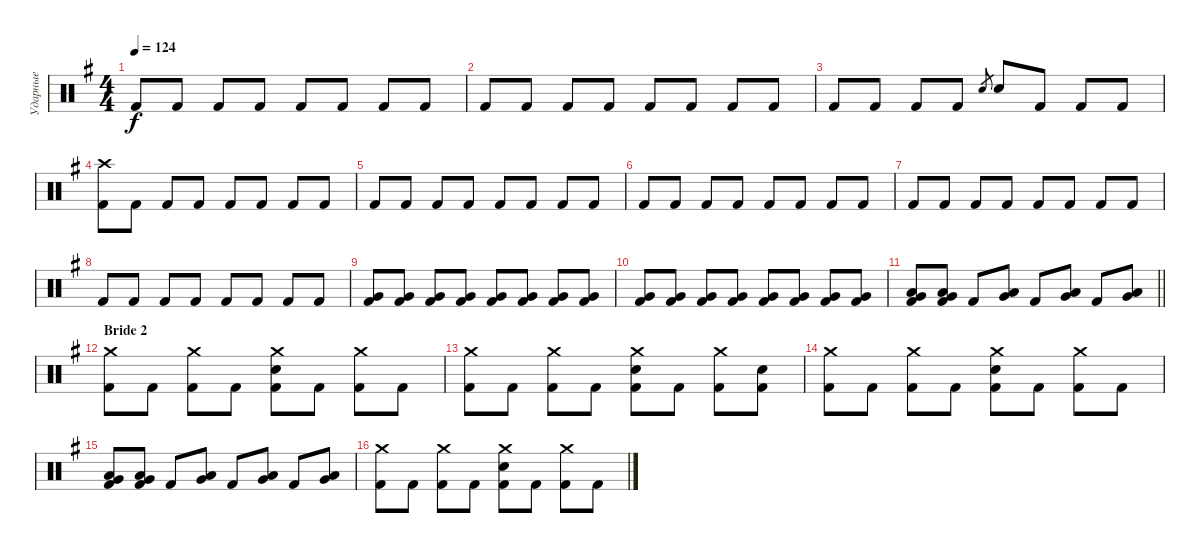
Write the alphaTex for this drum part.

\track ("Ударные" "Ударные") {instrument percussion}
\staff {score}
\articulation defaults
\ts (4 4)
\tempo 124
\clef neutral
\ks g "Kick (hit) 2".8{dy f} "Kick (hit) 2".8 "Kick (hit) 2".8 "Kick (hit) 2".8 "Kick (hit) 2".8 "Kick (hit) 2".8 "Kick (hit) 2".8 "Kick (hit) 2".8
|
"Kick (hit) 2".8 "Kick (hit) 2".8 "Kick (hit) 2".8 "Kick (hit) 2".8 "Kick (hit) 2".8 "Kick (hit) 2".8 "Kick (hit) 2".8 "Kick (hit) 2".8 |
"Kick (hit) 2".8 "Kick (hit) 2".8 "Kick (hit) 2".8 "Kick (hit) 2".8 "Electric Snare (hit)".8{gr} "Electric Snare (hit)".8 "Kick (hit) 2".8 "Kick (hit) 2".8 "Kick (hit) 2".8 |
("Crash high (hit)" "Kick (hit) 2").8 "Kick (hit) 2".8 "Kick (hit) 2".8 "Kick (hit) 2".8 "Kick (hit) 2".8 "Kick (hit) 2".8 "Kick (hit) 2".8 "Kick (hit) 2".8 |
"Kick (hit) 2".8 "Kick (hit) 2".8 "Kick (hit) 2".8 "Kick (hit) 2".8 "Kick (hit) 2".8 "Kick (hit) 2".8 "Kick (hit) 2".8 "Kick (hit) 2".8 |
"Kick (hit) 2".8 "Kick (hit) 2".8 "Kick (hit) 2".8 "Kick (hit) 2".8 "Kick (hit) 2".8 "Kick (hit) 2".8 "Kick (hit) 2".8 "Kick (hit) 2".8 |
"Kick (hit) 2".8 "Kick (hit) 2".8 "Kick (hit) 2".8 "Kick (hit) 2".8 "Kick (hit) 2".8 "Kick (hit) 2".8 "Kick (hit) 2".8 "Kick (hit) 2".8 |
"Kick (hit) 2".8 "Kick (hit) 2".8 "Kick (hit) 2".8 "Kick (hit) 2".8 "Kick (hit) 2".8 "Kick (hit) 2".8 "Kick (hit) 2".8 "Kick (hit) 2".8 |
("Very Low Tom (hit)" "Kick (hit) 2").8 ("Very Low Tom (hit)" "Kick (hit) 2").8 ("Very Low Tom (hit)" "Kick (hit) 2").8 ("Very Low Tom (hit)" "Kick (hit) 2").8 ("Very Low Tom (hit)" "Kick (hit) 2").8 ("Very Low Tom (hit)" "Kick (hit) 2").8 ("Very Low Tom (hit)" "Kick (hit) 2").8 ("Very Low Tom (hit)" "Kick (hit) 2").8 |
("Very Low Tom (hit)" "Kick (hit) 2").8 ("Very Low Tom (hit)" "Kick (hit) 2").8 ("Very Low Tom (hit)" "Kick (hit) 2").8 ("Very Low Tom (hit)" "Kick (hit) 2").8 ("Very Low Tom (hit)" "Kick (hit) 2").8 ("Very Low Tom (hit)" "Kick (hit) 2").8 ("Very Low Tom (hit)" "Kick (hit) 2").8 ("Very Low Tom (hit)" "Kick (hit) 2").8 |
\barLineRight lightlight
("Very Low Tom (hit)" "Low Tom (hit)" "Kick (hit) 2").8 ("Very Low Tom (hit)" "Low Tom (hit)" "Kick (hit) 2").8 "Kick (hit) 2".8 ("Very Low Tom (hit)" "Low Tom (hit)").8 "Kick (hit) 2".8 ("Very Low Tom (hit)" "Low Tom (hit)").8 "Kick (hit) 2".8 ("Very Low Tom (hit)" "Low Tom (hit)").8 |
\section ("" "Bride 2")
("Crash medium (hit)" "Kick (hit) 2").8 "Kick (hit) 2".8 ("Crash medium (hit)" "Kick (hit) 2").8 "Kick (hit) 2".8 ("Crash medium (hit)" "Electric Snare (hit)" "Kick (hit) 2").8 "Kick (hit) 2".8 ("Crash medium (hit)" "Kick (hit) 2").8 "Kick (hit) 2".8 |
("Crash medium (hit)" "Kick (hit) 2").8 "Kick (hit) 2".8 ("Crash medium (hit)" "Kick (hit) 2").8 "Kick (hit) 2".8 ("Crash medium (hit)" "Electric Snare (hit)" "Kick (hit) 2").8 "Kick (hit) 2".8 ("Crash medium (hit)" "Kick (hit) 2").8 ("Electric Snare (hit)" "Kick (hit) 2").8 |
("Crash medium (hit)" "Kick (hit) 2").8 "Kick (hit) 2".8 ("Crash medium (hit)" "Kick (hit) 2").8 "Kick (hit) 2".8 ("Crash medium (hit)" "Electric Snare (hit)" "Kick (hit) 2").8 "Kick (hit) 2".8 ("Crash medium (hit)" "Kick (hit) 2").8 "Kick (hit) 2".8 |
("Very Low Tom (hit)" "Low Tom (hit)" "Kick (hit) 2").8 ("Very Low Tom (hit)" "Low Tom (hit)" "Kick (hit) 2").8 "Kick (hit) 2".8 ("Very Low Tom (hit)" "Low Tom (hit)").8 "Kick (hit) 2".8 ("Very Low Tom (hit)" "Low Tom (hit)").8 "Kick (hit) 2".8 ("Very Low Tom (hit)" "Low Tom (hit)").8 |
("Crash medium (hit)" "Kick (hit) 2").8 "Kick (hit) 2".8 ("Crash medium (hit)" "Kick (hit) 2").8 "Kick (hit) 2".8 ("Crash medium (hit)" "Electric Snare (hit)" "Kick (hit) 2").8 "Kick (hit) 2".8 ("Crash medium (hit)" "Kick (hit) 2").8 "Kick (hit) 2".8
